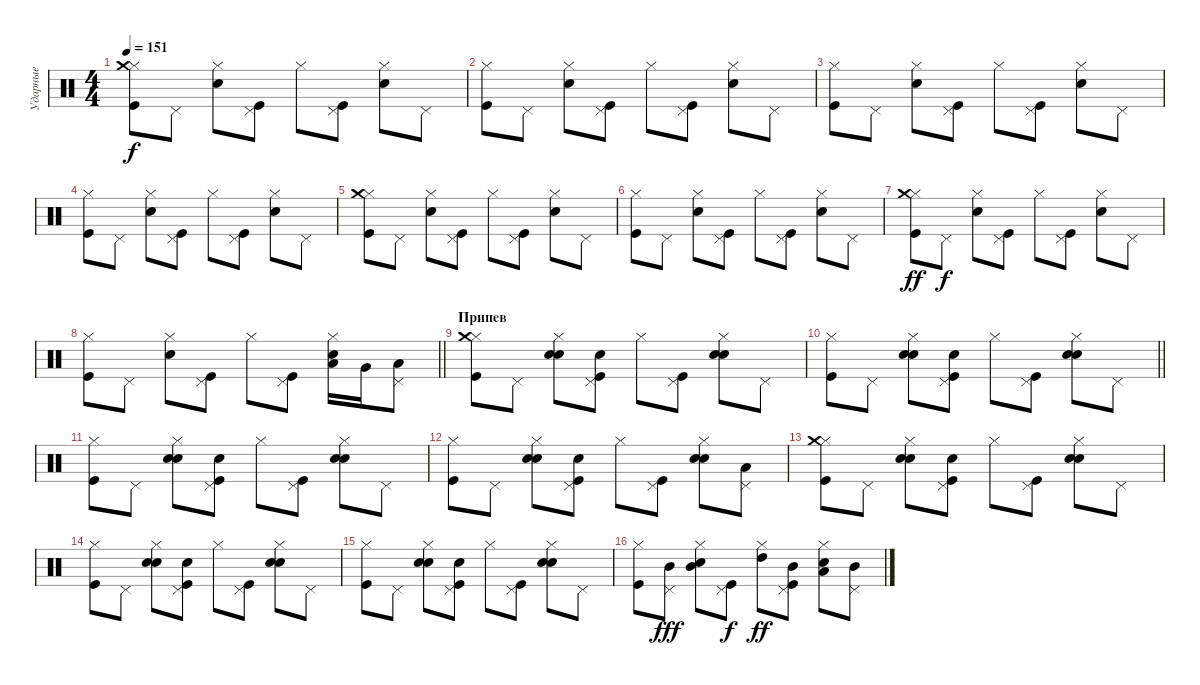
\track ("Ударные" "Ударные") {instrument percussion}
\staff {score}
\articulation defaults
\ts (4 4)
\tempo 151
\clef neutral
\ks c
("Hi-Hat (closed)" "Kick (hit)" "Crash medium (hit)").8{dy f} "Pedal Hi-Hat (hit)".8 ("Hi-Hat (closed)" "Snare (hit) 2").8 ("Pedal Hi-Hat (hit)" "Kick (hit)").8 "Hi-Hat (closed)".8 ("Pedal Hi-Hat (hit)" "Kick (hit)").8 ("Hi-Hat (closed)" "Snare (hit) 2").8 "Pedal Hi-Hat (hit)".8 |
("Hi-Hat (closed)" "Kick (hit)").8 "Pedal Hi-Hat (hit)".8 ("Hi-Hat (closed)" "Snare (hit) 2").8 ("Pedal Hi-Hat (hit)" "Kick (hit)").8 "Hi-Hat (closed)".8 ("Pedal Hi-Hat (hit)" "Kick (hit)").8 ("Hi-Hat (closed)" "Snare (hit) 2").8 "Pedal Hi-Hat (hit)".8 |
("Hi-Hat (closed)" "Kick (hit)").8 "Pedal Hi-Hat (hit)".8 ("Hi-Hat (closed)" "Snare (hit) 2").8 ("Pedal Hi-Hat (hit)" "Kick (hit)").8 "Hi-Hat (closed)".8 ("Pedal Hi-Hat (hit)" "Kick (hit)").8 ("Hi-Hat (closed)" "Snare (hit) 2").8 "Pedal Hi-Hat (hit)".8 |
("Hi-Hat (closed)" "Kick (hit)").8 "Pedal Hi-Hat (hit)".8 ("Hi-Hat (closed)" "Snare (hit) 2").8 ("Pedal Hi-Hat (hit)" "Kick (hit)").8 "Hi-Hat (closed)".8 ("Pedal Hi-Hat (hit)" "Kick (hit)").8 ("Hi-Hat (closed)" "Snare (hit) 2").8 "Pedal Hi-Hat (hit)".8 |
("Hi-Hat (closed)" "Kick (hit)" "Crash medium (hit)").8 "Pedal Hi-Hat (hit)".8 ("Hi-Hat (closed)" "Snare (hit) 2").8 ("Pedal Hi-Hat (hit)" "Kick (hit)").8 "Hi-Hat (closed)".8 ("Pedal Hi-Hat (hit)" "Kick (hit)").8 ("Hi-Hat (closed)" "Snare (hit) 2").8 "Pedal Hi-Hat (hit)".8 |
("Hi-Hat (closed)" "Kick (hit)").8 "Pedal Hi-Hat (hit)".8 ("Hi-Hat (closed)" "Snare (hit) 2").8 ("Pedal Hi-Hat (hit)" "Kick (hit)").8 "Hi-Hat (closed)".8 ("Pedal Hi-Hat (hit)" "Kick (hit)").8 ("Hi-Hat (closed)" "Snare (hit) 2").8 "Pedal Hi-Hat (hit)".8 |
("Hi-Hat (closed)" "Kick (hit)" "Crash medium (hit)").8{dy ff} "Pedal Hi-Hat (hit)".8{dy f} ("Hi-Hat (closed)" "Snare (hit) 2").8 ("Pedal Hi-Hat (hit)" "Kick (hit)").8 "Hi-Hat (closed)".8 ("Pedal Hi-Hat (hit)" "Kick (hit)").8 ("Hi-Hat (closed)" "Snare (hit) 2").8 "Pedal Hi-Hat (hit)".8 |
\barLineRight lightlight
("Hi-Hat (closed)" "Kick (hit)").8 "Pedal Hi-Hat (hit)".8 ("Hi-Hat (closed)" "Snare (hit) 2").8 ("Pedal Hi-Hat (hit)" "Kick (hit)").8 "Hi-Hat (closed)".8 ("Pedal Hi-Hat (hit)" "Kick (hit)").8 ("Hi-Hat (closed)" "Snare (hit) 2" "Low Floor Tom (hit)").16 "Very Low Tom (hit)".16 ("Pedal Hi-Hat (hit)" "Low Floor Tom (hit)").8 |
\section ("" "Припев")
("Hi-Hat (closed)" "Kick (hit)" "Crash medium (hit)").8 "Pedal Hi-Hat (hit)".8 ("Hi-Hat (closed)" "Snare (hit) 2" "Hand Clap (hit)").8 ("Pedal Hi-Hat (hit)" "Kick (hit)" "Hand Clap (hit)").8 "Hi-Hat (closed)".8 ("Pedal Hi-Hat (hit)" "Kick (hit)").8 ("Hi-Hat (closed)" "Snare (hit) 2" "Hand Clap (hit)").8 "Pedal Hi-Hat (hit)".8 |
\barLineRight lightlight
("Hi-Hat (closed)" "Kick (hit)").8 "Pedal Hi-Hat (hit)".8 ("Hi-Hat (closed)" "Snare (hit) 2" "Hand Clap (hit)").8 ("Pedal Hi-Hat (hit)" "Kick (hit)" "Hand Clap (hit)").8 "Hi-Hat (closed)".8 ("Pedal Hi-Hat (hit)" "Kick (hit)").8 ("Hi-Hat (closed)" "Snare (hit) 2" "Hand Clap (hit)").8 "Pedal Hi-Hat (hit)".8 |
("Hi-Hat (closed)" "Kick (hit)").8 "Pedal Hi-Hat (hit)".8 ("Hi-Hat (closed)" "Snare (hit) 2" "Hand Clap (hit)").8 ("Pedal Hi-Hat (hit)" "Kick (hit)" "Hand Clap (hit)").8 "Hi-Hat (closed)".8 ("Pedal Hi-Hat (hit)" "Kick (hit)").8 ("Hi-Hat (closed)" "Snare (hit) 2" "Hand Clap (hit)").8 "Pedal Hi-Hat (hit)".8 |
("Hi-Hat (closed)" "Kick (hit)").8 "Pedal Hi-Hat (hit)".8 ("Hi-Hat (closed)" "Snare (hit) 2" "Hand Clap (hit)").8 ("Pedal Hi-Hat (hit)" "Kick (hit)" "Hand Clap (hit)").8 "Hi-Hat (closed)".8 ("Pedal Hi-Hat (hit)" "Kick (hit)").8 ("Hi-Hat (closed)" "Snare (hit) 2" "Hand Clap (hit)").8 ("Pedal Hi-Hat (hit)" "Low Tom (hit)").8 |
("Hi-Hat (closed)" "Kick (hit)" "Crash medium (hit)").8 "Pedal Hi-Hat (hit)".8 ("Hi-Hat (closed)" "Snare (hit) 2" "Hand Clap (hit)").8 ("Pedal Hi-Hat (hit)" "Kick (hit)" "Hand Clap (hit)").8 "Hi-Hat (closed)".8 ("Pedal Hi-Hat (hit)" "Kick (hit)").8 ("Hi-Hat (closed)" "Snare (hit) 2" "Hand Clap (hit)").8 "Pedal Hi-Hat (hit)".8 |
("Hi-Hat (closed)" "Kick (hit)").8 "Pedal Hi-Hat (hit)".8 ("Hi-Hat (closed)" "Snare (hit) 2" "Hand Clap (hit)").8 ("Pedal Hi-Hat (hit)" "Kick (hit)" "Hand Clap (hit)").8 "Hi-Hat (closed)".8 ("Pedal Hi-Hat (hit)" "Kick (hit)").8 ("Hi-Hat (closed)" "Snare (hit) 2" "Hand Clap (hit)").8 "Pedal Hi-Hat (hit)".8 |
("Hi-Hat (closed)" "Kick (hit)").8 "Pedal Hi-Hat (hit)".8 ("Hi-Hat (closed)" "Snare (hit) 2" "Hand Clap (hit)").8 ("Pedal Hi-Hat (hit)" "Kick (hit)" "Hand Clap (hit)").8 "Hi-Hat (closed)".8 ("Pedal Hi-Hat (hit)" "Kick (hit)").8 ("Hi-Hat (closed)" "Snare (hit) 2" "Hand Clap (hit)").8 "Pedal Hi-Hat (hit)".8 |
("Hi-Hat (closed)" "Kick (hit)").8 ("Pedal Hi-Hat (hit)" "Mid Tom (hit)").8{dy fff} ("Hi-Hat (closed)" "Snare (hit) 2" "Mid Tom (hit)").8 ("Pedal Hi-Hat (hit)" "Kick (hit)").8{dy f} ("Hi-Hat (closed)" "High Tom (hit)").8{dy ff} ("Pedal Hi-Hat (hit)" "Kick (hit)" "Mid Tom (hit)").8 ("Hi-Hat (closed)" "Snare (hit) 2" "Low Tom (hit)").8 ("Pedal Hi-Hat (hit)" "Mid Tom (hit)").8
